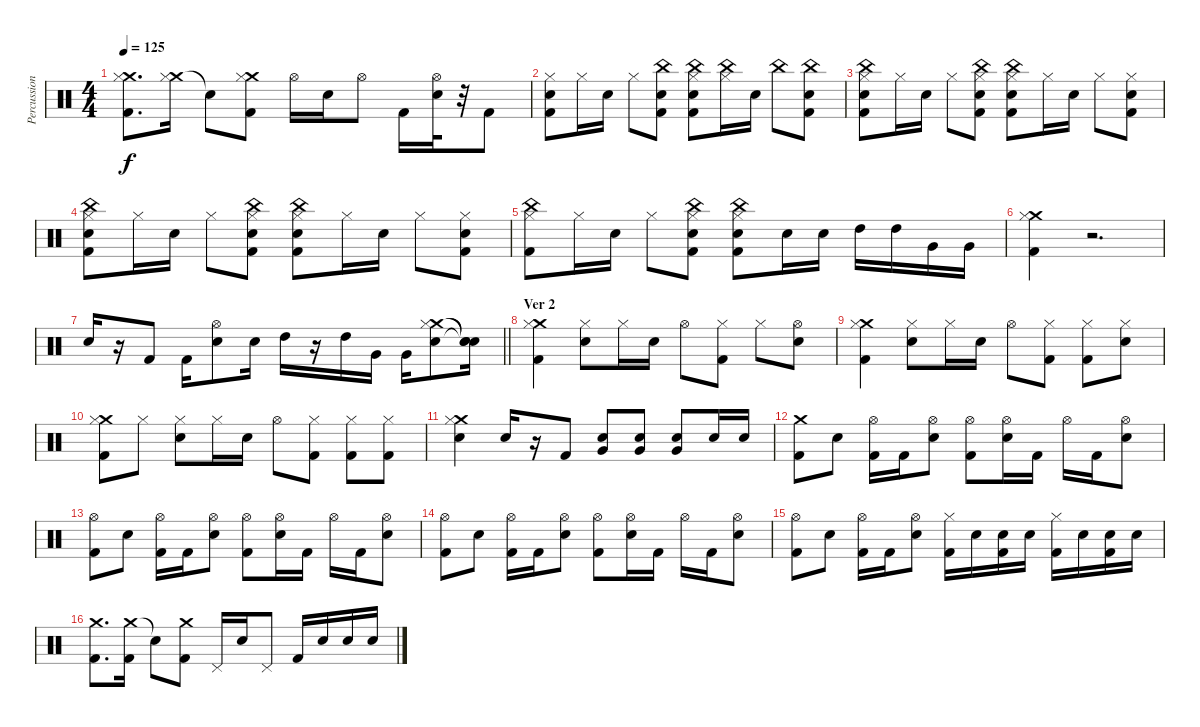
\track ("Percussion" "Percussion") {instrument percussion}
\staff {score}
\articulation defaults
\ts (4 4)
\tempo 125
\clef neutral
\ks c
("Crash medium (hit)" "Hi-Hat (closed)" "Kick (hit) 2").8{d dy f} ("Crash medium (hit)" "Hi-Hat (closed)").16 "Snare (hit)"{t}.8 ("Crash medium (hit)" "Hi-Hat (closed)" "Kick (hit) 2").8 "Hi-Hat (open)".16 "Electric Snare (hit)".16 "Hi-Hat (open)".8 "Kick (hit) 2".16 ("Hi-Hat (open)" "Electric Snare (hit)").32 r.32 "Kick (hit) 2".8 |
("Hi-Hat (closed)" "Electric Snare (hit)" "Kick (hit) 2").8 "Hi-Hat (closed)".16 "Electric Snare (hit)".16 "Hi-Hat (closed)".8 ("China (hit)" "Electric Snare (hit)" "Kick (hit) 2").8 ("China (hit)" "Hi-Hat (closed)" "Electric Snare (hit)" "Kick (hit) 2").8 ("China (hit)" "Hi-Hat (closed)").16 "Electric Snare (hit)".16 "China (hit)".8 ("China (hit)" "Electric Snare (hit)" "Kick (hit) 2").8 |
("China (hit)" "Hi-Hat (closed)" "Electric Snare (hit)" "Kick (hit) 2").8 "Hi-Hat (closed)".16 "Electric Snare (hit)".16 "Hi-Hat (closed)".8 ("China (hit)" "Hi-Hat (closed)" "Electric Snare (hit)" "Kick (hit) 2").8 ("China (hit)" "Hi-Hat (closed)" "Electric Snare (hit)" "Kick (hit) 2").8 "Hi-Hat (closed)".16 "Electric Snare (hit)".16 "Hi-Hat (closed)".8 ("Hi-Hat (closed)" "Electric Snare (hit)" "Kick (hit) 2").8 |
("China (hit)" "Hi-Hat (closed)" "Electric Snare (hit)" "Kick (hit) 2").8 "Hi-Hat (closed)".16 "Electric Snare (hit)".16 "Hi-Hat (closed)".8 ("China (hit)" "Hi-Hat (closed)" "Electric Snare (hit)" "Kick (hit) 2").8 ("China (hit)" "Hi-Hat (closed)" "Electric Snare (hit)" "Kick (hit) 2").8 "Hi-Hat (closed)".16 "Electric Snare (hit)".16 "Hi-Hat (closed)".8 ("Hi-Hat (closed)" "Electric Snare (hit)" "Kick (hit) 2").8 |
("China (hit)" "Hi-Hat (closed)" "Kick (hit) 2").8 "Hi-Hat (closed)".16 "Electric Snare (hit)".16 "Hi-Hat (closed)".8 ("China (hit)" "Hi-Hat (closed)" "Electric Snare (hit)" "Kick (hit) 2").8 ("China (hit)" "Hi-Hat (closed)" "Electric Snare (hit)" "Kick (hit) 2").8 "Electric Snare (hit)".16 "Electric Snare (hit)".16 "High Tom (hit)".16 "High Tom (hit)".16 "Very Low Tom (hit)".16 "Very Low Tom (hit)".16 |
("Crash medium (hit)" "Hi-Hat (closed)" "Kick (hit) 2").4 r.2{d} |
\barLineRight lightlight "Electric Snare (hit)".16
r.16 "Kick (hit) 2".8 "Kick (hit) 2".16 ("Hi-Hat (open)" "Electric Snare (hit)").8 "Electric Snare (hit)".16 "High Tom (hit)".16 r.16 "High Tom (hit)".16 "Very Low Tom (hit)".16 "Very Low Tom (hit)".16 ("Crash medium (hit)" "Hi-Hat (closed)" "Electric Snare (hit)").8 ("Snare (hit)"{t} "Snare (hit)"{t} "Snare (hit)"{t}).16 |
\section ("" "Ver 2")
("Crash medium (hit)" "Hi-Hat (closed)" "Kick (hit) 2").4 ("Hi-Hat (closed)" "Electric Snare (hit)").8 "Hi-Hat (closed)".16 "Electric Snare (hit)".16 "Hi-Hat (open)".8 ("Hi-Hat (closed)" "Kick (hit) 2").8 "Hi-Hat (closed)".8 ("Hi-Hat (open)" "Electric Snare (hit)").8 |
("Crash medium (hit)" "Hi-Hat (closed)" "Kick (hit) 2").4 ("Hi-Hat (closed)" "Electric Snare (hit)").8 "Hi-Hat (closed)".16 "Electric Snare (hit)".16 "Hi-Hat (open)".8 ("Hi-Hat (closed)" "Kick (hit) 2").8 ("Hi-Hat (closed)" "Kick (hit) 2").8 ("Hi-Hat (closed)" "Electric Snare (hit)").8 |
("Crash medium (hit)" "Hi-Hat (closed)" "Kick (hit) 2").8 "Hi-Hat (closed)".8 ("Hi-Hat (closed)" "Electric Snare (hit)").8 "Hi-Hat (closed)".16 "Electric Snare (hit)".16 "Hi-Hat (open)".8 ("Hi-Hat (closed)" "Kick (hit) 2").8 ("Hi-Hat (closed)" "Kick (hit) 2").8 ("Hi-Hat (closed)" "Kick (hit) 2").8 |
("Crash medium (hit)" "Hi-Hat (closed)" "Electric Snare (hit)").4 "Electric Snare (hit)".16 r.16 "Kick (hit) 2".8 ("Electric Snare (hit)" "Very Low Tom (hit)").8 ("Electric Snare (hit)" "Very Low Tom (hit)").8 ("Electric Snare (hit)" "Very Low Tom (hit)").8 "Electric Snare (hit)".16 "Electric Snare (hit)".16 |
("Crash medium (hit)" "Kick (hit) 2").8 "Electric Snare (hit)".8 ("Hi-Hat (open)" "Kick (hit) 2").16 "Kick (hit) 2".16 ("Hi-Hat (open)" "Electric Snare (hit)").8 ("Hi-Hat (open)" "Kick (hit) 2").8 ("Hi-Hat (open)" "Electric Snare (hit)").16 "Kick (hit) 2".16 "Hi-Hat (open)".16 "Kick (hit) 2".16 ("Hi-Hat (open)" "Electric Snare (hit)").8 |
("Hi-Hat (open)" "Kick (hit) 2").8 "Electric Snare (hit)".8 ("Hi-Hat (open)" "Kick (hit) 2").16 "Kick (hit) 2".16 ("Hi-Hat (open)" "Electric Snare (hit)").8 ("Hi-Hat (open)" "Kick (hit) 2").8 ("Hi-Hat (open)" "Electric Snare (hit)").16 "Kick (hit) 2".16 "Hi-Hat (open)".16 "Kick (hit) 2".16 ("Hi-Hat (open)" "Electric Snare (hit)").8 |
("Hi-Hat (open)" "Kick (hit) 2").8 "Electric Snare (hit)".8 ("Hi-Hat (open)" "Kick (hit) 2").16 "Kick (hit) 2".16 ("Hi-Hat (open)" "Electric Snare (hit)").8 ("Hi-Hat (open)" "Kick (hit) 2").8 ("Hi-Hat (open)" "Electric Snare (hit)").16 "Kick (hit) 2".16 "Hi-Hat (open)".16 "Kick (hit) 2".16 ("Hi-Hat (open)" "Electric Snare (hit)").8 |
("Hi-Hat (open)" "Kick (hit) 2").8 "Electric Snare (hit)".8 ("Hi-Hat (open)" "Kick (hit) 2").16 "Kick (hit) 2".16 ("Hi-Hat (open)" "Electric Snare (hit)").8 ("Hi-Hat (closed)" "Kick (hit) 2").16 "Electric Snare (hit)".16 ("Electric Snare (hit)" "Kick (hit) 2").16 "Electric Snare (hit)".16 ("Hi-Hat (closed)" "Kick (hit) 2").16 "Electric Snare (hit)".16 ("Electric Snare (hit)" "Kick (hit) 2").16 "Electric Snare (hit)".16 |
("Crash medium (hit)" "Kick (hit) 2").8{d} ("Crash medium (hit)" "Kick (hit) 2").16 "Snare (hit)"{t}.8 ("Crash medium (hit)" "Kick (hit) 2").8 "Pedal Hi-Hat (hit)".16 "Electric Snare (hit)".16 "Pedal Hi-Hat (hit)".8 "Kick (hit) 2".16 "Electric Snare (hit)".16 "Electric Snare (hit)".16 "Electric Snare (hit)".16
